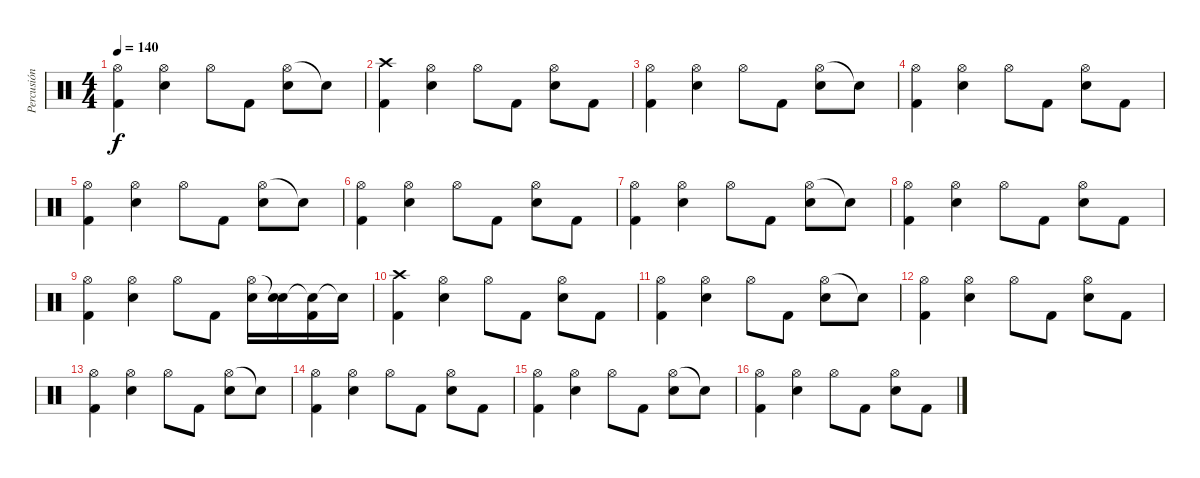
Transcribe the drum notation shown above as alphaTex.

\track ("Percusión" "Percusión") {instrument percussion}
\staff {score}
\articulation defaults
\ts (4 4)
\tempo 140
\clef neutral
\ks c
("Hi-Hat (open)" "Kick (hit) 2").4{dy f} ("Hi-Hat (open)" "Snare (hit) 2").4 "Hi-Hat (open)".8 "Kick (hit) 2".8 ("Hi-Hat (open)" "Snare (hit) 2").8 "Snare (hit)"{t}.8 |
("Crash high (hit)" "Kick (hit) 2").4 ("Hi-Hat (open)" "Snare (hit) 2").4 "Hi-Hat (open)".8 "Kick (hit) 2".8 ("Hi-Hat (open)" "Snare (hit) 2").8 "Kick (hit) 2".8 |
("Hi-Hat (open)" "Kick (hit) 2").4 ("Hi-Hat (open)" "Snare (hit) 2").4 "Hi-Hat (open)".8 "Kick (hit) 2".8 ("Hi-Hat (open)" "Snare (hit) 2").8 "Snare (hit)"{t}.8 |
("Hi-Hat (open)" "Kick (hit) 2").4 ("Hi-Hat (open)" "Snare (hit) 2").4 "Hi-Hat (open)".8 "Kick (hit) 2".8 ("Hi-Hat (open)" "Snare (hit) 2").8 "Kick (hit) 2".8 |
("Hi-Hat (open)" "Kick (hit) 2").4 ("Hi-Hat (open)" "Snare (hit) 2").4 "Hi-Hat (open)".8 "Kick (hit) 2".8 ("Hi-Hat (open)" "Snare (hit) 2").8 "Snare (hit)"{t}.8 |
("Hi-Hat (open)" "Kick (hit) 2").4 ("Hi-Hat (open)" "Snare (hit) 2").4 "Hi-Hat (open)".8 "Kick (hit) 2".8 ("Hi-Hat (open)" "Snare (hit) 2").8 "Kick (hit) 2".8 |
("Hi-Hat (open)" "Kick (hit) 2").4 ("Hi-Hat (open)" "Snare (hit) 2").4 "Hi-Hat (open)".8 "Kick (hit) 2".8 ("Hi-Hat (open)" "Snare (hit) 2").8 "Snare (hit)"{t}.8 |
("Hi-Hat (open)" "Kick (hit) 2").4 ("Hi-Hat (open)" "Snare (hit) 2").4 "Hi-Hat (open)".8 "Kick (hit) 2".8 ("Hi-Hat (open)" "Snare (hit) 2").8 "Kick (hit) 2".8 |
("Hi-Hat (open)" "Kick (hit) 2").4 ("Hi-Hat (open)" "Snare (hit) 2").4 "Hi-Hat (open)".8 "Kick (hit) 2".8 ("Hi-Hat (open)" "Snare (hit) 2").16 ("Snare (hit)"{t} "Snare (hit) 2").16 ("Snare (hit)"{t} "Kick (hit) 2").16 "Snare (hit)"{t}.16 |
("Crash high (hit)" "Kick (hit) 2").4 ("Hi-Hat (open)" "Snare (hit) 2").4 "Hi-Hat (open)".8 "Kick (hit) 2".8 ("Hi-Hat (open)" "Snare (hit) 2").8 "Kick (hit) 2".8 |
("Hi-Hat (open)" "Kick (hit) 2").4 ("Hi-Hat (open)" "Snare (hit) 2").4 "Hi-Hat (open)".8 "Kick (hit) 2".8 ("Hi-Hat (open)" "Snare (hit) 2").8 "Snare (hit)"{t}.8 |
("Hi-Hat (open)" "Kick (hit) 2").4 ("Hi-Hat (open)" "Snare (hit) 2").4 "Hi-Hat (open)".8 "Kick (hit) 2".8 ("Hi-Hat (open)" "Snare (hit) 2").8 "Kick (hit) 2".8 |
("Hi-Hat (open)" "Kick (hit) 2").4 ("Hi-Hat (open)" "Snare (hit) 2").4 "Hi-Hat (open)".8 "Kick (hit) 2".8 ("Hi-Hat (open)" "Snare (hit) 2").8 "Snare (hit)"{t}.8 |
("Hi-Hat (open)" "Kick (hit) 2").4 ("Hi-Hat (open)" "Snare (hit) 2").4 "Hi-Hat (open)".8 "Kick (hit) 2".8 ("Hi-Hat (open)" "Snare (hit) 2").8 "Kick (hit) 2".8 |
("Hi-Hat (open)" "Kick (hit) 2").4 ("Hi-Hat (open)" "Snare (hit) 2").4 "Hi-Hat (open)".8 "Kick (hit) 2".8 ("Hi-Hat (open)" "Snare (hit) 2").8 "Snare (hit)"{t}.8 |
("Hi-Hat (open)" "Kick (hit) 2").4 ("Hi-Hat (open)" "Snare (hit) 2").4 "Hi-Hat (open)".8 "Kick (hit) 2".8 ("Hi-Hat (open)" "Snare (hit) 2").8 "Kick (hit) 2".8
